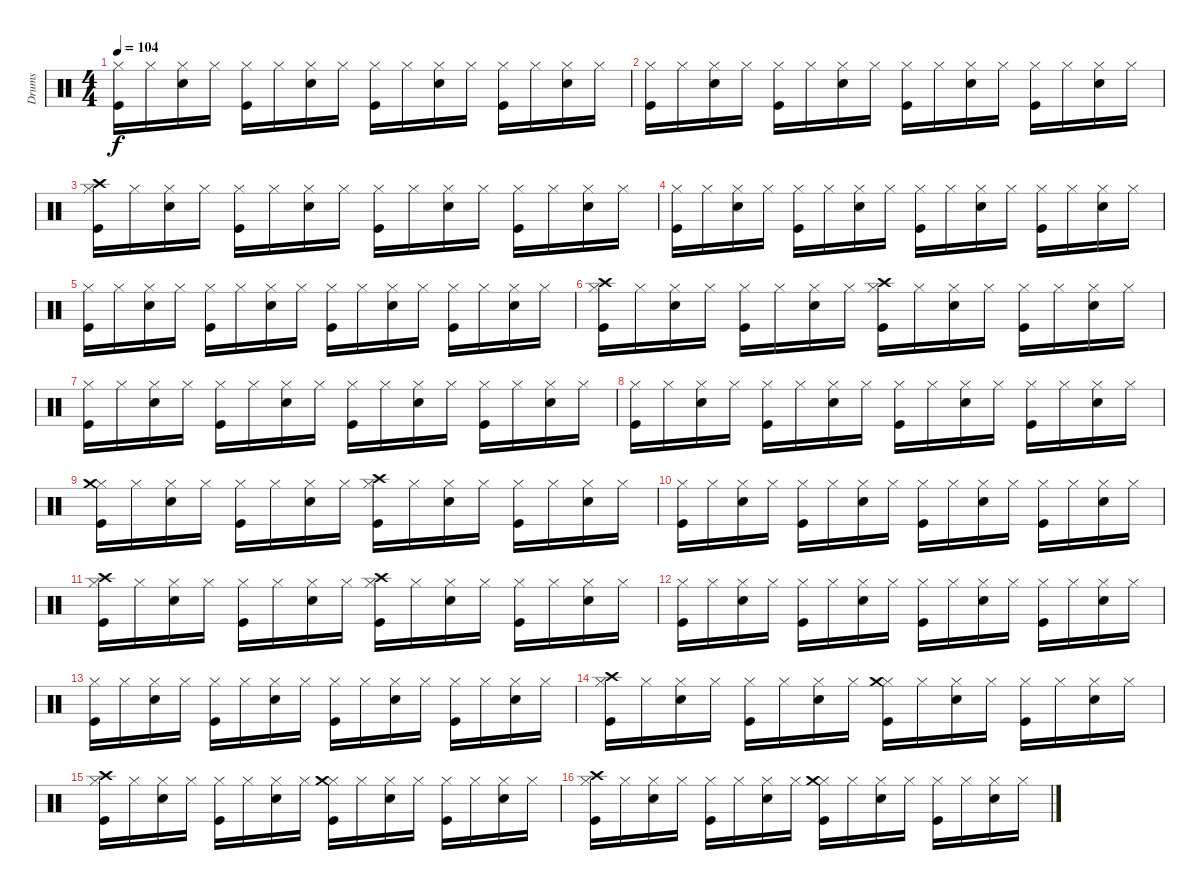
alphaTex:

\track ("Drums" "Drums") {instrument percussion}
\staff {score}
\articulation defaults
\ts (4 4)
\tempo 104
\clef neutral
\ks c
("Kick (hit)" "Hi-Hat (closed)").16{dy f} "Hi-Hat (closed)".16 ("Snare (hit) 2" "Hi-Hat (closed)").16 "Hi-Hat (closed)".16 ("Kick (hit)" "Hi-Hat (closed)").16 "Hi-Hat (closed)".16 ("Snare (hit) 2" "Hi-Hat (closed)").16 "Hi-Hat (closed)".16 ("Kick (hit)" "Hi-Hat (closed)").16 "Hi-Hat (closed)".16 ("Snare (hit) 2" "Hi-Hat (closed)").16 "Hi-Hat (closed)".16 ("Kick (hit)" "Hi-Hat (closed)").16 "Hi-Hat (closed)".16 ("Snare (hit) 2" "Hi-Hat (closed)").16 "Hi-Hat (closed)".16 |
("Kick (hit)" "Hi-Hat (closed)").16 "Hi-Hat (closed)".16 ("Snare (hit) 2" "Hi-Hat (closed)").16 "Hi-Hat (closed)".16 ("Kick (hit)" "Hi-Hat (closed)").16 "Hi-Hat (closed)".16 ("Snare (hit) 2" "Hi-Hat (closed)").16 "Hi-Hat (closed)".16 ("Kick (hit)" "Hi-Hat (closed)").16 "Hi-Hat (closed)".16 ("Snare (hit) 2" "Hi-Hat (closed)").16 "Hi-Hat (closed)".16 ("Kick (hit)" "Hi-Hat (closed)").16 "Hi-Hat (closed)".16 ("Snare (hit) 2" "Hi-Hat (closed)").16 "Hi-Hat (closed)".16 |
("Kick (hit)" "Hi-Hat (closed)" "Crash high (hit)").16 "Hi-Hat (closed)".16 ("Snare (hit) 2" "Hi-Hat (closed)").16 "Hi-Hat (closed)".16 ("Kick (hit)" "Hi-Hat (closed)").16 "Hi-Hat (closed)".16 ("Snare (hit) 2" "Hi-Hat (closed)").16 "Hi-Hat (closed)".16 ("Kick (hit)" "Hi-Hat (closed)").16 "Hi-Hat (closed)".16 ("Snare (hit) 2" "Hi-Hat (closed)").16 "Hi-Hat (closed)".16 ("Kick (hit)" "Hi-Hat (closed)").16 "Hi-Hat (closed)".16 ("Snare (hit) 2" "Hi-Hat (closed)").16 "Hi-Hat (closed)".16 |
("Kick (hit)" "Hi-Hat (closed)").16 "Hi-Hat (closed)".16 ("Snare (hit) 2" "Hi-Hat (closed)").16 "Hi-Hat (closed)".16 ("Kick (hit)" "Hi-Hat (closed)").16 "Hi-Hat (closed)".16 ("Snare (hit) 2" "Hi-Hat (closed)").16 "Hi-Hat (closed)".16 ("Kick (hit)" "Hi-Hat (closed)").16 "Hi-Hat (closed)".16 ("Snare (hit) 2" "Hi-Hat (closed)").16 "Hi-Hat (closed)".16 ("Kick (hit)" "Hi-Hat (closed)").16 "Hi-Hat (closed)".16 ("Snare (hit) 2" "Hi-Hat (closed)").16 "Hi-Hat (closed)".16 |
("Kick (hit)" "Hi-Hat (closed)").16 "Hi-Hat (closed)".16 ("Snare (hit) 2" "Hi-Hat (closed)").16 "Hi-Hat (closed)".16 ("Kick (hit)" "Hi-Hat (closed)").16 "Hi-Hat (closed)".16 ("Snare (hit) 2" "Hi-Hat (closed)").16 "Hi-Hat (closed)".16 ("Kick (hit)" "Hi-Hat (closed)").16 "Hi-Hat (closed)".16 ("Snare (hit) 2" "Hi-Hat (closed)").16 "Hi-Hat (closed)".16 ("Kick (hit)" "Hi-Hat (closed)").16 "Hi-Hat (closed)".16 ("Snare (hit) 2" "Hi-Hat (closed)").16 "Hi-Hat (closed)".16 |
("Kick (hit)" "Hi-Hat (closed)" "Crash high (hit)").16 "Hi-Hat (closed)".16 ("Snare (hit) 2" "Hi-Hat (closed)").16 "Hi-Hat (closed)".16 ("Kick (hit)" "Hi-Hat (closed)").16 "Hi-Hat (closed)".16 ("Snare (hit) 2" "Hi-Hat (closed)").16 "Hi-Hat (closed)".16 ("Kick (hit)" "Hi-Hat (closed)" "Crash high (hit)").16 "Hi-Hat (closed)".16 ("Snare (hit) 2" "Hi-Hat (closed)").16 "Hi-Hat (closed)".16 ("Kick (hit)" "Hi-Hat (closed)").16 "Hi-Hat (closed)".16 ("Snare (hit) 2" "Hi-Hat (closed)").16 "Hi-Hat (closed)".16 |
("Kick (hit)" "Hi-Hat (closed)").16 "Hi-Hat (closed)".16 ("Snare (hit) 2" "Hi-Hat (closed)").16 "Hi-Hat (closed)".16 ("Kick (hit)" "Hi-Hat (closed)").16 "Hi-Hat (closed)".16 ("Snare (hit) 2" "Hi-Hat (closed)").16 "Hi-Hat (closed)".16 ("Kick (hit)" "Hi-Hat (closed)").16 "Hi-Hat (closed)".16 ("Snare (hit) 2" "Hi-Hat (closed)").16 "Hi-Hat (closed)".16 ("Kick (hit)" "Hi-Hat (closed)").16 "Hi-Hat (closed)".16 ("Snare (hit) 2" "Hi-Hat (closed)").16 "Hi-Hat (closed)".16 |
("Kick (hit)" "Hi-Hat (closed)").16 "Hi-Hat (closed)".16 ("Snare (hit) 2" "Hi-Hat (closed)").16 "Hi-Hat (closed)".16 ("Kick (hit)" "Hi-Hat (closed)").16 "Hi-Hat (closed)".16 ("Snare (hit) 2" "Hi-Hat (closed)").16 "Hi-Hat (closed)".16 ("Kick (hit)" "Hi-Hat (closed)").16 "Hi-Hat (closed)".16 ("Snare (hit) 2" "Hi-Hat (closed)").16 "Hi-Hat (closed)".16 ("Kick (hit)" "Hi-Hat (closed)").16 "Hi-Hat (closed)".16 ("Snare (hit) 2" "Hi-Hat (closed)").16 "Hi-Hat (closed)".16 |
("Kick (hit)" "Hi-Hat (closed)" "Crash medium (hit)").16 "Hi-Hat (closed)".16 ("Snare (hit) 2" "Hi-Hat (closed)").16 "Hi-Hat (closed)".16 ("Kick (hit)" "Hi-Hat (closed)").16 "Hi-Hat (closed)".16 ("Snare (hit) 2" "Hi-Hat (closed)").16 "Hi-Hat (closed)".16 ("Kick (hit)" "Hi-Hat (closed)" "Crash high (hit)").16 "Hi-Hat (closed)".16 ("Snare (hit) 2" "Hi-Hat (closed)").16 "Hi-Hat (closed)".16 ("Kick (hit)" "Hi-Hat (closed)").16 "Hi-Hat (closed)".16 ("Snare (hit) 2" "Hi-Hat (closed)").16 "Hi-Hat (closed)".16 |
("Kick (hit)" "Hi-Hat (closed)").16 "Hi-Hat (closed)".16 ("Snare (hit) 2" "Hi-Hat (closed)").16 "Hi-Hat (closed)".16 ("Kick (hit)" "Hi-Hat (closed)").16 "Hi-Hat (closed)".16 ("Snare (hit) 2" "Hi-Hat (closed)").16 "Hi-Hat (closed)".16 ("Kick (hit)" "Hi-Hat (closed)").16 "Hi-Hat (closed)".16 ("Snare (hit) 2" "Hi-Hat (closed)").16 "Hi-Hat (closed)".16 ("Kick (hit)" "Hi-Hat (closed)").16 "Hi-Hat (closed)".16 ("Snare (hit) 2" "Hi-Hat (closed)").16 "Hi-Hat (closed)".16 |
("Kick (hit)" "Hi-Hat (closed)" "Crash high (hit)").16 "Hi-Hat (closed)".16 ("Snare (hit) 2" "Hi-Hat (closed)").16 "Hi-Hat (closed)".16 ("Kick (hit)" "Hi-Hat (closed)").16 "Hi-Hat (closed)".16 ("Snare (hit) 2" "Hi-Hat (closed)").16 "Hi-Hat (closed)".16 ("Kick (hit)" "Hi-Hat (closed)" "Crash high (hit)").16 "Hi-Hat (closed)".16 ("Snare (hit) 2" "Hi-Hat (closed)").16 "Hi-Hat (closed)".16 ("Kick (hit)" "Hi-Hat (closed)").16 "Hi-Hat (closed)".16 ("Snare (hit) 2" "Hi-Hat (closed)").16 "Hi-Hat (closed)".16 |
("Kick (hit)" "Hi-Hat (closed)").16 "Hi-Hat (closed)".16 ("Snare (hit) 2" "Hi-Hat (closed)").16 "Hi-Hat (closed)".16 ("Kick (hit)" "Hi-Hat (closed)").16 "Hi-Hat (closed)".16 ("Snare (hit) 2" "Hi-Hat (closed)").16 "Hi-Hat (closed)".16 ("Kick (hit)" "Hi-Hat (closed)").16 "Hi-Hat (closed)".16 ("Snare (hit) 2" "Hi-Hat (closed)").16 "Hi-Hat (closed)".16 ("Kick (hit)" "Hi-Hat (closed)").16 "Hi-Hat (closed)".16 ("Snare (hit) 2" "Hi-Hat (closed)").16 "Hi-Hat (closed)".16 |
("Kick (hit)" "Hi-Hat (closed)").16 "Hi-Hat (closed)".16 ("Snare (hit) 2" "Hi-Hat (closed)").16 "Hi-Hat (closed)".16 ("Kick (hit)" "Hi-Hat (closed)").16 "Hi-Hat (closed)".16 ("Snare (hit) 2" "Hi-Hat (closed)").16 "Hi-Hat (closed)".16 ("Kick (hit)" "Hi-Hat (closed)").16 "Hi-Hat (closed)".16 ("Snare (hit) 2" "Hi-Hat (closed)").16 "Hi-Hat (closed)".16 ("Kick (hit)" "Hi-Hat (closed)").16 "Hi-Hat (closed)".16 ("Snare (hit) 2" "Hi-Hat (closed)").16 "Hi-Hat (closed)".16 |
("Kick (hit)" "Hi-Hat (closed)" "Crash high (hit)").16 "Hi-Hat (closed)".16 ("Snare (hit) 2" "Hi-Hat (closed)").16 "Hi-Hat (closed)".16 ("Kick (hit)" "Hi-Hat (closed)").16 "Hi-Hat (closed)".16 ("Snare (hit) 2" "Hi-Hat (closed)").16 "Hi-Hat (closed)".16 ("Kick (hit)" "Hi-Hat (closed)" "Crash medium (hit)").16 "Hi-Hat (closed)".16 ("Snare (hit) 2" "Hi-Hat (closed)").16 "Hi-Hat (closed)".16 ("Kick (hit)" "Hi-Hat (closed)").16 "Hi-Hat (closed)".16 ("Snare (hit) 2" "Hi-Hat (closed)").16 "Hi-Hat (closed)".16 |
("Kick (hit)" "Hi-Hat (closed)" "Crash high (hit)").16 "Hi-Hat (closed)".16 ("Snare (hit) 2" "Hi-Hat (closed)").16 "Hi-Hat (closed)".16 ("Kick (hit)" "Hi-Hat (closed)").16 "Hi-Hat (closed)".16 ("Snare (hit) 2" "Hi-Hat (closed)").16 "Hi-Hat (closed)".16 ("Kick (hit)" "Hi-Hat (closed)" "Crash medium (hit)").16 "Hi-Hat (closed)".16 ("Snare (hit) 2" "Hi-Hat (closed)").16 "Hi-Hat (closed)".16 ("Kick (hit)" "Hi-Hat (closed)").16 "Hi-Hat (closed)".16 ("Snare (hit) 2" "Hi-Hat (closed)").16 "Hi-Hat (closed)".16 |
("Kick (hit)" "Hi-Hat (closed)" "Crash high (hit)").16 "Hi-Hat (closed)".16 ("Snare (hit) 2" "Hi-Hat (closed)").16 "Hi-Hat (closed)".16 ("Kick (hit)" "Hi-Hat (closed)").16 "Hi-Hat (closed)".16 ("Snare (hit) 2" "Hi-Hat (closed)").16 "Hi-Hat (closed)".16 ("Kick (hit)" "Hi-Hat (closed)" "Crash medium (hit)").16 "Hi-Hat (closed)".16 ("Snare (hit) 2" "Hi-Hat (closed)").16 "Hi-Hat (closed)".16 ("Kick (hit)" "Hi-Hat (closed)").16 "Hi-Hat (closed)".16 ("Snare (hit) 2" "Hi-Hat (closed)").16 "Hi-Hat (closed)".16
